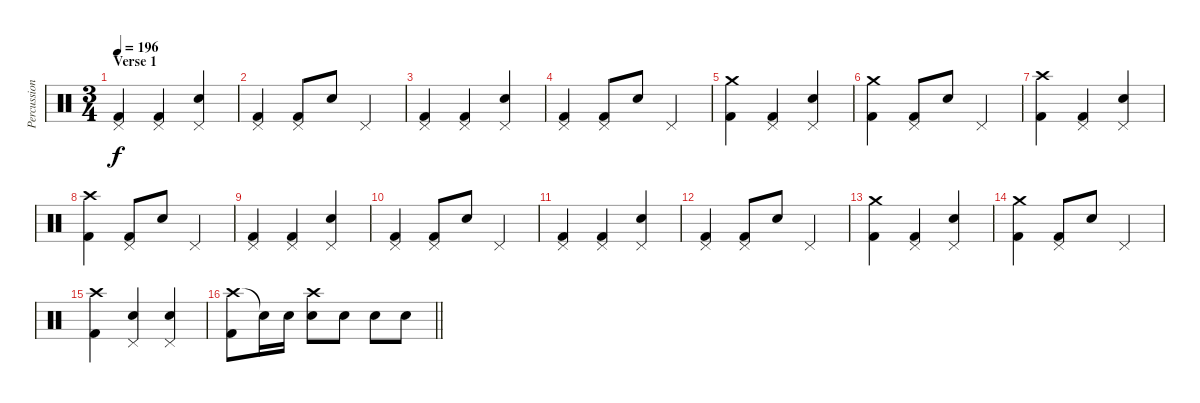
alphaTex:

\track ("Percussion" "Percussion") {instrument percussion}
\staff {score}
\articulation defaults
\ts (3 4)
\section ("" "Verse 1")
\tempo 196
\clef neutral
\ks c
("Pedal Hi-Hat (hit)" "Kick (hit) 2").4{dy f} ("Pedal Hi-Hat (hit)" "Kick (hit) 2").4 ("Pedal Hi-Hat (hit)" "Electric Snare (hit)").4 |
("Pedal Hi-Hat (hit)" "Kick (hit) 2").4 ("Pedal Hi-Hat (hit)" "Kick (hit) 2").8 "Electric Snare (hit)".8 "Pedal Hi-Hat (hit)".4 |
("Pedal Hi-Hat (hit)" "Kick (hit) 2").4 ("Pedal Hi-Hat (hit)" "Kick (hit) 2").4 ("Pedal Hi-Hat (hit)" "Electric Snare (hit)").4 |
("Pedal Hi-Hat (hit)" "Kick (hit) 2").4 ("Pedal Hi-Hat (hit)" "Kick (hit) 2").8 "Electric Snare (hit)".8 "Pedal Hi-Hat (hit)".4 |
("Crash medium (hit)" "Kick (hit) 2").4 ("Pedal Hi-Hat (hit)" "Kick (hit) 2").4 ("Pedal Hi-Hat (hit)" "Electric Snare (hit)").4 |
("Crash medium (hit)" "Kick (hit) 2").4 ("Pedal Hi-Hat (hit)" "Kick (hit) 2").8 "Electric Snare (hit)".8 "Pedal Hi-Hat (hit)".4 |
("Crash high (hit)" "Kick (hit) 2").4 ("Pedal Hi-Hat (hit)" "Kick (hit) 2").4 ("Pedal Hi-Hat (hit)" "Electric Snare (hit)").4 |
("Crash high (hit)" "Kick (hit) 2").4 ("Pedal Hi-Hat (hit)" "Kick (hit) 2").8 "Electric Snare (hit)".8 "Pedal Hi-Hat (hit)".4 |
("Pedal Hi-Hat (hit)" "Kick (hit) 2").4 ("Pedal Hi-Hat (hit)" "Kick (hit) 2").4 ("Pedal Hi-Hat (hit)" "Electric Snare (hit)").4 |
("Pedal Hi-Hat (hit)" "Kick (hit) 2").4 ("Pedal Hi-Hat (hit)" "Kick (hit) 2").8 "Electric Snare (hit)".8 "Pedal Hi-Hat (hit)".4 |
("Pedal Hi-Hat (hit)" "Kick (hit) 2").4 ("Pedal Hi-Hat (hit)" "Kick (hit) 2").4 ("Pedal Hi-Hat (hit)" "Electric Snare (hit)").4 |
("Pedal Hi-Hat (hit)" "Kick (hit) 2").4 ("Pedal Hi-Hat (hit)" "Kick (hit) 2").8 "Electric Snare (hit)".8 "Pedal Hi-Hat (hit)".4 |
("Crash medium (hit)" "Kick (hit) 2").4 ("Pedal Hi-Hat (hit)" "Kick (hit) 2").4 ("Pedal Hi-Hat (hit)" "Electric Snare (hit)").4 |
("Crash medium (hit)" "Kick (hit) 2").4 ("Pedal Hi-Hat (hit)" "Kick (hit) 2").8 "Electric Snare (hit)".8 "Pedal Hi-Hat (hit)".4 |
("Crash high (hit)" "Kick (hit) 2").4 ("Pedal Hi-Hat (hit)" "Electric Snare (hit)").4 ("Pedal Hi-Hat (hit)" "Electric Snare (hit)").4 |
\barLineRight lightlight
("Crash high (hit)" "Kick (hit) 2").8 "Snare (hit)"{t}.16 "Electric Snare (hit)".16 ("Crash high (hit)" "Electric Snare (hit)").8 "Electric Snare (hit)".8 "Electric Snare (hit)".8 "Electric Snare (hit)".8
